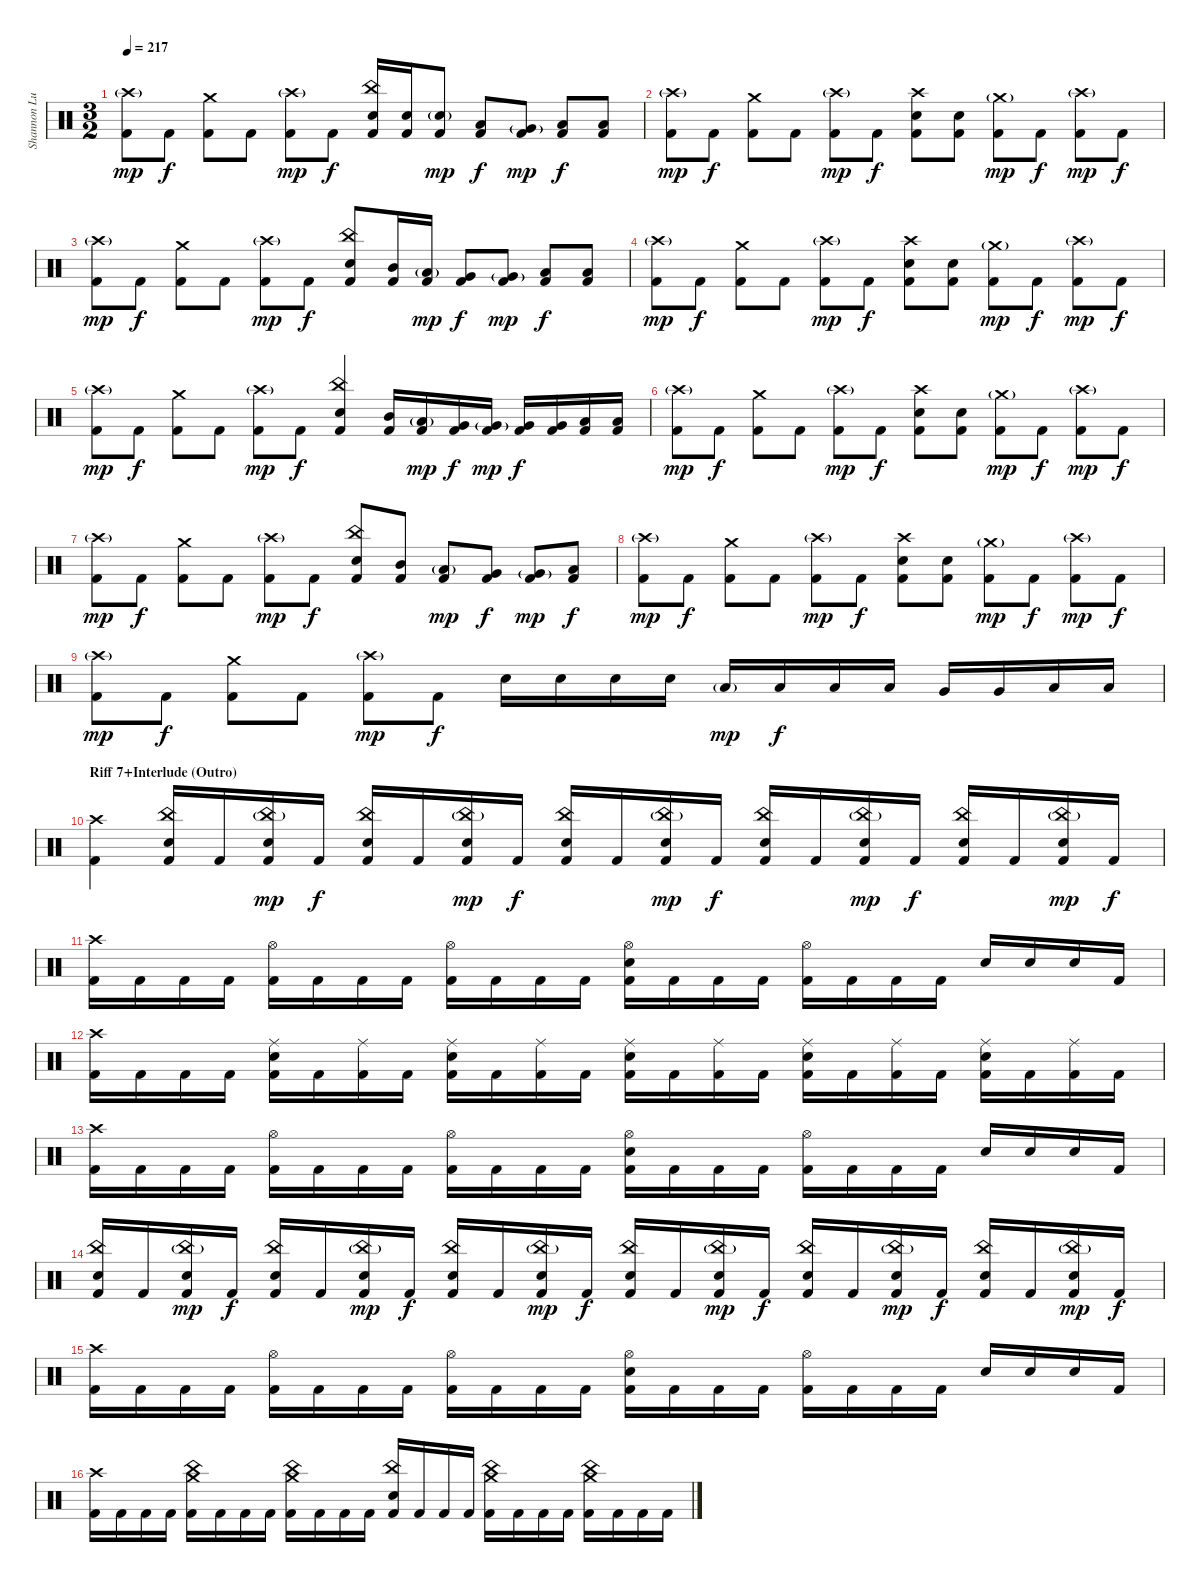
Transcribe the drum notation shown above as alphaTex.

\track ("Shannon Lucas (Drums)" "Shannon Lu") {instrument percussion}
\staff {score}
\articulation defaults
\ts (3 2)
\tempo 217
\clef neutral
\ks c
("Crash high (hit)"{g} "Kick (hit) 2").8{dy mp} "Kick (hit) 2".8{dy f} ("Crash medium (hit)" "Kick (hit) 2").8 "Kick (hit) 2".8 ("Crash high (hit)"{g} "Kick (hit) 2").8{dy mp} "Kick (hit) 2".8{dy f} ("China (hit)" "Snare (hit) 2" "Kick (hit) 2").16 ("Snare (hit) 2" "Kick (hit) 2").16 ("Snare (hit) 2"{g} "Kick (hit) 2").8{dy mp} ("Low Tom (hit)" "Kick (hit) 2").8{dy f} ("Very Low Tom (hit)"{g} "Kick (hit) 2").8{dy mp} ("Low Floor Tom (hit)" "Kick (hit) 2").8{dy f} ("Low Floor Tom (hit)" "Kick (hit) 2").8 |
("Crash high (hit)"{g} "Kick (hit) 2").8{dy mp} "Kick (hit) 2".8{dy f} ("Crash medium (hit)" "Kick (hit) 2").8 "Kick (hit) 2".8 ("Crash high (hit)"{g} "Kick (hit) 2").8{dy mp} "Kick (hit) 2".8{dy f} ("Crash high (hit)" "Snare (hit) 2" "Kick (hit) 2").8 ("Snare (hit) 2" "Kick (hit) 2").8 ("Crash medium (hit)"{g} "Kick (hit) 2").8{dy mp} "Kick (hit) 2".8{dy f} ("Crash high (hit)"{g} "Kick (hit) 2").8{dy mp} "Kick (hit) 2".8{dy f} |
("Crash high (hit)"{g} "Kick (hit) 2").8{dy mp} "Kick (hit) 2".8{dy f} ("Crash medium (hit)" "Kick (hit) 2").8 "Kick (hit) 2".8 ("Crash high (hit)"{g} "Kick (hit) 2").8{dy mp} "Kick (hit) 2".8{dy f} ("China (hit)" "Snare (hit) 2" "Kick (hit) 2").8 ("Mid Tom (hit)" "Kick (hit) 2").16 ("Low Tom (hit)"{g} "Kick (hit) 2").16{dy mp} ("Very Low Tom (hit)" "Kick (hit) 2").8{dy f} ("Very Low Tom (hit)"{g} "Kick (hit) 2").8{dy mp} ("Low Floor Tom (hit)" "Kick (hit) 2").8{dy f} ("Low Floor Tom (hit)" "Kick (hit) 2").8 |
("Crash high (hit)"{g} "Kick (hit) 2").8{dy mp} "Kick (hit) 2".8{dy f} ("Crash medium (hit)" "Kick (hit) 2").8 "Kick (hit) 2".8 ("Crash high (hit)"{g} "Kick (hit) 2").8{dy mp} "Kick (hit) 2".8{dy f} ("Crash high (hit)" "Snare (hit) 2" "Kick (hit) 2").8 ("Snare (hit) 2" "Kick (hit) 2").8 ("Crash medium (hit)"{g} "Kick (hit) 2").8{dy mp} "Kick (hit) 2".8{dy f} ("Crash high (hit)"{g} "Kick (hit) 2").8{dy mp} "Kick (hit) 2".8{dy f} |
("Crash high (hit)"{g} "Kick (hit) 2").8{dy mp} "Kick (hit) 2".8{dy f} ("Crash medium (hit)" "Kick (hit) 2").8 "Kick (hit) 2".8 ("Crash high (hit)"{g} "Kick (hit) 2").8{dy mp} "Kick (hit) 2".8{dy f} ("China (hit)" "Snare (hit) 2" "Kick (hit) 2").4 ("Mid Tom (hit)" "Kick (hit) 2").16 ("Low Tom (hit)"{g} "Kick (hit) 2").16{dy mp} ("Very Low Tom (hit)" "Kick (hit) 2").16{dy f} ("Very Low Tom (hit)"{g} "Kick (hit) 2").16{dy mp} ("Very Low Tom (hit)" "Kick (hit) 2").16{dy f} ("Very Low Tom (hit)" "Kick (hit) 2").16 ("Low Floor Tom (hit)" "Kick (hit) 2").16 ("Low Floor Tom (hit)" "Kick (hit) 2").16 |
("Crash high (hit)"{g} "Kick (hit) 2").8{dy mp} "Kick (hit) 2".8{dy f} ("Crash medium (hit)" "Kick (hit) 2").8 "Kick (hit) 2".8 ("Crash high (hit)"{g} "Kick (hit) 2").8{dy mp} "Kick (hit) 2".8{dy f} ("Crash high (hit)" "Snare (hit) 2" "Kick (hit) 2").8 ("Snare (hit) 2" "Kick (hit) 2").8 ("Crash medium (hit)"{g} "Kick (hit) 2").8{dy mp} "Kick (hit) 2".8{dy f} ("Crash high (hit)"{g} "Kick (hit) 2").8{dy mp} "Kick (hit) 2".8{dy f} |
("Crash high (hit)"{g} "Kick (hit) 2").8{dy mp} "Kick (hit) 2".8{dy f} ("Crash medium (hit)" "Kick (hit) 2").8 "Kick (hit) 2".8 ("Crash high (hit)"{g} "Kick (hit) 2").8{dy mp} "Kick (hit) 2".8{dy f} ("China (hit)" "Snare (hit) 2" "Kick (hit) 2").8 ("Mid Tom (hit)" "Kick (hit) 2").8 ("Low Tom (hit)"{g} "Kick (hit) 2").8{dy mp} ("Very Low Tom (hit)" "Kick (hit) 2").8{dy f} ("Very Low Tom (hit)"{g} "Kick (hit) 2").8{dy mp} ("Low Floor Tom (hit)" "Kick (hit) 2").8{dy f} |
("Crash high (hit)"{g} "Kick (hit) 2").8{dy mp} "Kick (hit) 2".8{dy f} ("Crash medium (hit)" "Kick (hit) 2").8 "Kick (hit) 2".8 ("Crash high (hit)"{g} "Kick (hit) 2").8{dy mp} "Kick (hit) 2".8{dy f} ("Crash high (hit)" "Snare (hit) 2" "Kick (hit) 2").8 ("Snare (hit) 2" "Kick (hit) 2").8 ("Crash medium (hit)"{g} "Kick (hit) 2").8{dy mp} "Kick (hit) 2".8{dy f} ("Crash high (hit)"{g} "Kick (hit) 2").8{dy mp} "Kick (hit) 2".8{dy f} |
("Crash high (hit)"{g} "Kick (hit) 2").8{dy mp} "Kick (hit) 2".8{dy f} ("Crash medium (hit)" "Kick (hit) 2").8 "Kick (hit) 2".8 ("Crash high (hit)"{g} "Kick (hit) 2").8{dy mp} "Kick (hit) 2".8{dy f} "Snare (hit) 2".16 "Snare (hit) 2".16 "Snare (hit) 2".16 "Snare (hit) 2".16 "Low Tom (hit)"{g}.16{dy mp} "Low Tom (hit)".16{dy f} "Low Tom (hit)".16 "Low Tom (hit)".16 "Very Low Tom (hit)".16 "Very Low Tom (hit)".16 "Low Floor Tom (hit)".16 "Low Floor Tom (hit)".16 |
\section ("" "Riff 7+Interlude (Outro)")
("Crash high (hit)" "Kick (hit) 2").4 ("China (hit)" "Snare (hit) 2" "Kick (hit) 2").16 "Kick (hit) 2".16 ("China (hit)"{g} "Snare (hit) 2" "Kick (hit) 2").16{dy mp} "Kick (hit) 2".16{dy f} ("China (hit)" "Snare (hit) 2" "Kick (hit) 2").16 "Kick (hit) 2".16 ("China (hit)"{g} "Snare (hit) 2" "Kick (hit) 2").16{dy mp} "Kick (hit) 2".16{dy f} ("China (hit)" "Snare (hit) 2" "Kick (hit) 2").16 "Kick (hit) 2".16 ("China (hit)"{g} "Snare (hit) 2" "Kick (hit) 2").16{dy mp} "Kick (hit) 2".16{dy f} ("China (hit)" "Snare (hit) 2" "Kick (hit) 2").16 "Kick (hit) 2".16 ("China (hit)"{g} "Snare (hit) 2" "Kick (hit) 2").16{dy mp} "Kick (hit) 2".16{dy f} ("China (hit)" "Snare (hit) 2" "Kick (hit) 2").16 "Kick (hit) 2".16 ("China (hit)"{g} "Snare (hit) 2" "Kick (hit) 2").16{dy mp} "Kick (hit) 2".16{dy f} |
("Crash high (hit)" "Kick (hit) 2").16 "Kick (hit) 2".16 "Kick (hit) 2".16 "Kick (hit) 2".16 ("Hi-Hat (open)" "Kick (hit) 2").16 "Kick (hit) 2".16 "Kick (hit) 2".16 "Kick (hit) 2".16 ("Hi-Hat (open)" "Kick (hit) 2").16 "Kick (hit) 2".16 "Kick (hit) 2".16 "Kick (hit) 2".16 ("Hi-Hat (open)" "Snare (hit) 2" "Kick (hit) 2").16 "Kick (hit) 2".16 "Kick (hit) 2".16 "Kick (hit) 2".16 ("Hi-Hat (open)" "Kick (hit) 2").16 "Kick (hit) 2".16 "Kick (hit) 2".16 "Kick (hit) 2".16 "Snare (hit) 2".16 "Snare (hit) 2".16 "Snare (hit) 2".16 "Kick (hit) 2".16 |
("Crash high (hit)" "Kick (hit) 2").16 "Kick (hit) 2".16 "Kick (hit) 2".16 "Kick (hit) 2".16 ("Ride (middle)" "Snare (hit) 2" "Kick (hit) 2").16 "Kick (hit) 2".16 ("Ride (middle)" "Kick (hit) 2").16 "Kick (hit) 2".16 ("Ride (middle)" "Snare (hit) 2" "Kick (hit) 2").16 "Kick (hit) 2".16 ("Ride (middle)" "Kick (hit) 2").16 "Kick (hit) 2".16 ("Ride (middle)" "Snare (hit) 2" "Kick (hit) 2").16 "Kick (hit) 2".16 ("Ride (middle)" "Kick (hit) 2").16 "Kick (hit) 2".16 ("Ride (middle)" "Snare (hit) 2" "Kick (hit) 2").16 "Kick (hit) 2".16 ("Ride (middle)" "Kick (hit) 2").16 "Kick (hit) 2".16 ("Ride (middle)" "Snare (hit) 2" "Kick (hit) 2").16 "Kick (hit) 2".16 ("Ride (middle)" "Kick (hit) 2").16 "Kick (hit) 2".16 |
("Crash high (hit)" "Kick (hit) 2").16 "Kick (hit) 2".16 "Kick (hit) 2".16 "Kick (hit) 2".16 ("Hi-Hat (open)" "Kick (hit) 2").16 "Kick (hit) 2".16 "Kick (hit) 2".16 "Kick (hit) 2".16 ("Hi-Hat (open)" "Kick (hit) 2").16 "Kick (hit) 2".16 "Kick (hit) 2".16 "Kick (hit) 2".16 ("Hi-Hat (open)" "Snare (hit) 2" "Kick (hit) 2").16 "Kick (hit) 2".16 "Kick (hit) 2".16 "Kick (hit) 2".16 ("Hi-Hat (open)" "Kick (hit) 2").16 "Kick (hit) 2".16 "Kick (hit) 2".16 "Kick (hit) 2".16 "Snare (hit) 2".16 "Snare (hit) 2".16 "Snare (hit) 2".16 "Kick (hit) 2".16 |
("China (hit)" "Snare (hit) 2" "Kick (hit) 2").16 "Kick (hit) 2".16 ("China (hit)"{g} "Snare (hit) 2" "Kick (hit) 2").16{dy mp} "Kick (hit) 2".16{dy f} ("China (hit)" "Snare (hit) 2" "Kick (hit) 2").16 "Kick (hit) 2".16 ("China (hit)"{g} "Snare (hit) 2" "Kick (hit) 2").16{dy mp} "Kick (hit) 2".16{dy f} ("China (hit)" "Snare (hit) 2" "Kick (hit) 2").16 "Kick (hit) 2".16 ("China (hit)"{g} "Snare (hit) 2" "Kick (hit) 2").16{dy mp} "Kick (hit) 2".16{dy f} ("China (hit)" "Snare (hit) 2" "Kick (hit) 2").16 "Kick (hit) 2".16 ("China (hit)"{g} "Snare (hit) 2" "Kick (hit) 2").16{dy mp} "Kick (hit) 2".16{dy f} ("China (hit)" "Snare (hit) 2" "Kick (hit) 2").16 "Kick (hit) 2".16 ("China (hit)"{g} "Snare (hit) 2" "Kick (hit) 2").16{dy mp} "Kick (hit) 2".16{dy f} ("China (hit)" "Snare (hit) 2" "Kick (hit) 2").16 "Kick (hit) 2".16 ("China (hit)"{g} "Snare (hit) 2" "Kick (hit) 2").16{dy mp} "Kick (hit) 2".16{dy f} |
("Crash high (hit)" "Kick (hit) 2").16 "Kick (hit) 2".16 "Kick (hit) 2".16 "Kick (hit) 2".16 ("Hi-Hat (open)" "Kick (hit) 2").16 "Kick (hit) 2".16 "Kick (hit) 2".16 "Kick (hit) 2".16 ("Hi-Hat (open)" "Kick (hit) 2").16 "Kick (hit) 2".16 "Kick (hit) 2".16 "Kick (hit) 2".16 ("Hi-Hat (open)" "Snare (hit) 2" "Kick (hit) 2").16 "Kick (hit) 2".16 "Kick (hit) 2".16 "Kick (hit) 2".16 ("Hi-Hat (open)" "Kick (hit) 2").16 "Kick (hit) 2".16 "Kick (hit) 2".16 "Kick (hit) 2".16 "Snare (hit) 2".16 "Snare (hit) 2".16 "Snare (hit) 2".16 "Kick (hit) 2".16 |
("Crash high (hit)" "Kick (hit) 2").16 "Kick (hit) 2".16 "Kick (hit) 2".16 "Kick (hit) 2".16 ("Crash medium (hit)" "China (hit)" "Kick (hit) 2").16 "Kick (hit) 2".16 "Kick (hit) 2".16 "Kick (hit) 2".16 ("Crash medium (hit)" "China (hit)" "Kick (hit) 2").16 "Kick (hit) 2".16 "Kick (hit) 2".16 "Kick (hit) 2".16 ("Snare (hit) 2" "China (hit)" "Kick (hit) 2").16 "Kick (hit) 2".16 "Kick (hit) 2".16 "Kick (hit) 2".16 ("Crash medium (hit)" "China (hit)" "Kick (hit) 2").16 "Kick (hit) 2".16 "Kick (hit) 2".16 "Kick (hit) 2".16 ("Crash medium (hit)" "China (hit)" "Kick (hit) 2").16 "Kick (hit) 2".16 "Kick (hit) 2".16 "Kick (hit) 2".16
